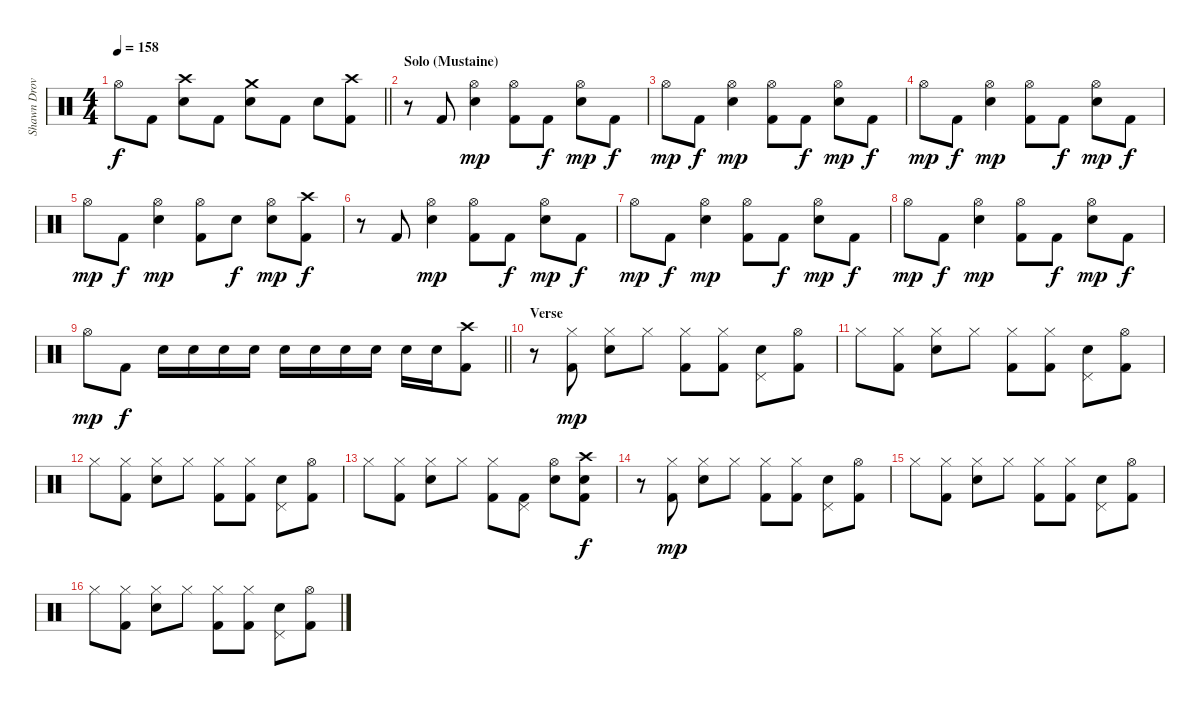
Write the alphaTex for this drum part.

\track ("Shawn Drover" "Shawn Drov") {instrument percussion}
\staff
\articulation defaults
\ts (4 4)
\tempo 158
\clef neutral
\barLineRight lightlight
\ks c "Hi-Hat (open)".8{dy f} "Kick (hit) 2".8
("Crash high (hit)" "Snare (hit) 2").8 "Kick (hit) 2".8 ("Crash medium (hit)" "Snare (hit) 2").8 "Kick (hit) 2".8 "Snare (hit) 2".8 ("Crash high (hit)" "Kick (hit) 2").8 |
\section ("" "Solo (Mustaine)")
r.8 "Kick (hit) 2".8 ("Hi-Hat (open)" "Snare (hit) 2").4{dy mp} ("Hi-Hat (open)" "Kick (hit) 2").8 "Kick (hit) 2".8{dy f} ("Hi-Hat (open)" "Snare (hit) 2").8{dy mp} "Kick (hit) 2".8{dy f} |
"Hi-Hat (open)".8{dy mp} "Kick (hit) 2".8{dy f} ("Hi-Hat (open)" "Snare (hit) 2").4{dy mp} ("Hi-Hat (open)" "Kick (hit) 2").8 "Kick (hit) 2".8{dy f} ("Hi-Hat (open)" "Snare (hit) 2").8{dy mp} "Kick (hit) 2".8{dy f} |
"Hi-Hat (open)".8{dy mp} "Kick (hit) 2".8{dy f} ("Hi-Hat (open)" "Snare (hit) 2").4{dy mp} ("Hi-Hat (open)" "Kick (hit) 2").8 "Kick (hit) 2".8{dy f} ("Hi-Hat (open)" "Snare (hit) 2").8{dy mp} "Kick (hit) 2".8{dy f} |
"Hi-Hat (open)".8{dy mp} "Kick (hit) 2".8{dy f} ("Hi-Hat (open)" "Snare (hit) 2").4{dy mp} ("Hi-Hat (open)" "Kick (hit) 2").8 "Snare (hit) 2".8{dy f} ("Hi-Hat (open)" "Snare (hit) 2").8{dy mp} ("Crash high (hit)" "Kick (hit) 2").8{dy f} |
r.8 "Kick (hit) 2".8 ("Hi-Hat (open)" "Snare (hit) 2").4{dy mp} ("Hi-Hat (open)" "Kick (hit) 2").8 "Kick (hit) 2".8{dy f} ("Hi-Hat (open)" "Snare (hit) 2").8{dy mp} "Kick (hit) 2".8{dy f} |
"Hi-Hat (open)".8{dy mp} "Kick (hit) 2".8{dy f} ("Hi-Hat (open)" "Snare (hit) 2").4{dy mp} ("Hi-Hat (open)" "Kick (hit) 2").8 "Kick (hit) 2".8{dy f} ("Hi-Hat (open)" "Snare (hit) 2").8{dy mp} "Kick (hit) 2".8{dy f} |
"Hi-Hat (open)".8{dy mp} "Kick (hit) 2".8{dy f} ("Hi-Hat (open)" "Snare (hit) 2").4{dy mp} ("Hi-Hat (open)" "Kick (hit) 2").8 "Kick (hit) 2".8{dy f} ("Hi-Hat (open)" "Snare (hit) 2").8{dy mp} "Kick (hit) 2".8{dy f} |
\barLineRight lightlight "Hi-Hat (open)".8{dy mp} "Kick (hit) 2".8{dy f} "Snare (hit) 2".16 "Snare (hit) 2".16 "Snare (hit) 2".16 "Snare (hit) 2".16 "Snare (hit) 2".16 "Snare (hit) 2".16 "Snare (hit) 2".16 "Snare (hit) 2".16 "Snare (hit) 2".16 "Snare (hit) 2".16
("Crash high (hit)" "Kick (hit) 2").8 |
\section ("" "Verse")
r.8 ("Hi-Hat (closed)" "Kick (hit) 2").8{dy mp} ("Hi-Hat (closed)" "Snare (hit) 2").8 "Hi-Hat (closed)".8 ("Hi-Hat (closed)" "Kick (hit) 2").8 ("Hi-Hat (closed)" "Kick (hit) 2").8 ("Pedal Hi-Hat (hit)" "Snare (hit) 2").8 ("Hi-Hat (open)" "Kick (hit) 2").8 |
"Hi-Hat (closed)".8 ("Hi-Hat (closed)" "Kick (hit) 2").8 ("Hi-Hat (closed)" "Snare (hit) 2").8 "Hi-Hat (closed)".8 ("Hi-Hat (closed)" "Kick (hit) 2").8 ("Hi-Hat (closed)" "Kick (hit) 2").8 ("Pedal Hi-Hat (hit)" "Snare (hit) 2").8 ("Hi-Hat (open)" "Kick (hit) 2").8 |
"Hi-Hat (closed)".8 ("Hi-Hat (closed)" "Kick (hit) 2").8 ("Hi-Hat (closed)" "Snare (hit) 2").8 "Hi-Hat (closed)".8 ("Hi-Hat (closed)" "Kick (hit) 2").8 ("Hi-Hat (closed)" "Kick (hit) 2").8 ("Pedal Hi-Hat (hit)" "Snare (hit) 2").8 ("Hi-Hat (open)" "Kick (hit) 2").8 |
"Hi-Hat (closed)".8 ("Hi-Hat (closed)" "Kick (hit) 2").8 ("Hi-Hat (closed)" "Snare (hit) 2").8 "Hi-Hat (closed)".8 ("Hi-Hat (closed)" "Kick (hit) 2").8 ("Pedal Hi-Hat (hit)" "Kick (hit) 2").8 ("Hi-Hat (open)" "Snare (hit) 2").8 ("Crash high (hit)" "Snare (hit) 2" "Kick (hit) 2").8{dy f} |
r.8 ("Hi-Hat (closed)" "Kick (hit) 2").8{dy mp} ("Hi-Hat (closed)" "Snare (hit) 2").8 "Hi-Hat (closed)".8 ("Hi-Hat (closed)" "Kick (hit) 2").8 ("Hi-Hat (closed)" "Kick (hit) 2").8 ("Pedal Hi-Hat (hit)" "Snare (hit) 2").8 ("Hi-Hat (open)" "Kick (hit) 2").8 |
"Hi-Hat (closed)".8 ("Hi-Hat (closed)" "Kick (hit) 2").8 ("Hi-Hat (closed)" "Snare (hit) 2").8 "Hi-Hat (closed)".8 ("Hi-Hat (closed)" "Kick (hit) 2").8 ("Hi-Hat (closed)" "Kick (hit) 2").8 ("Pedal Hi-Hat (hit)" "Snare (hit) 2").8 ("Hi-Hat (open)" "Kick (hit) 2").8 |
"Hi-Hat (closed)".8 ("Hi-Hat (closed)" "Kick (hit) 2").8 ("Hi-Hat (closed)" "Snare (hit) 2").8 "Hi-Hat (closed)".8 ("Hi-Hat (closed)" "Kick (hit) 2").8 ("Hi-Hat (closed)" "Kick (hit) 2").8 ("Pedal Hi-Hat (hit)" "Snare (hit) 2").8 ("Hi-Hat (open)" "Kick (hit) 2").8
